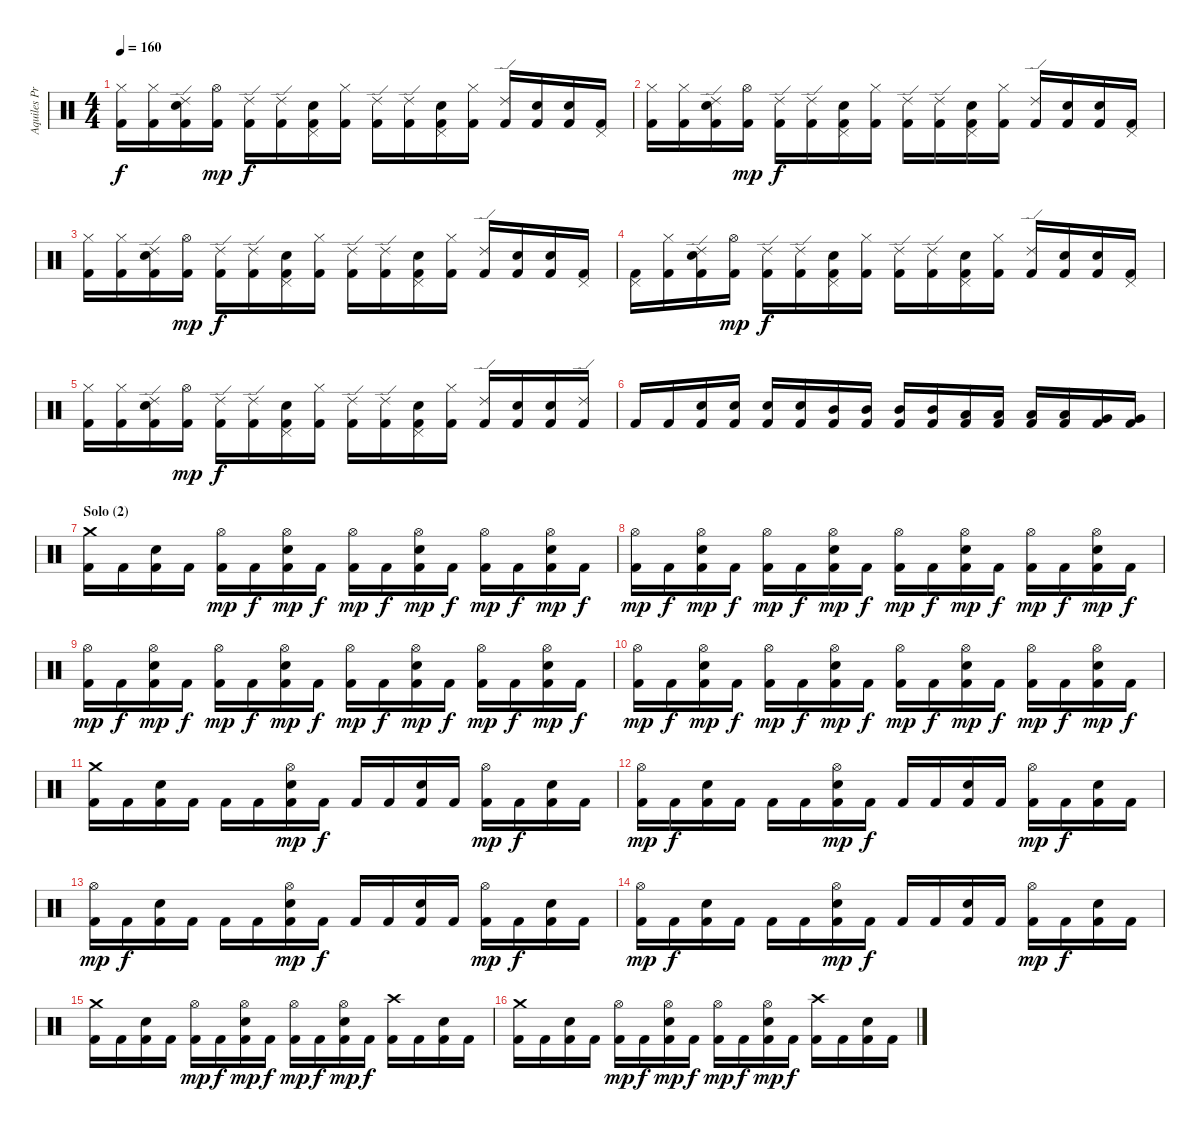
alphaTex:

\track ("Aquiles Priester" "Aquiles Pr") {instrument percussion}
\staff {score}
\articulation defaults
\ts (4 4)
\tempo 160
\clef neutral
\ks c
("Hi-Hat (closed)" "Kick (hit) 2").16{dy f} ("Hi-Hat (closed)" "Kick (hit) 2").16 ("Ride (edge) 2" "Snare (hit) 2" "Kick (hit) 2").16 ("Hi-Hat (open)" "Kick (hit) 2").16{dy mp} ("Ride (edge) 2" "Kick (hit) 2").16{dy f} ("Ride (edge) 2" "Kick (hit) 2").16 ("Pedal Hi-Hat (hit)" "Snare (hit) 2" "Kick (hit) 2").16 ("Hi-Hat (closed)" "Kick (hit) 2").16 ("Ride (edge) 2" "Kick (hit) 2").16 ("Ride (edge) 2" "Kick (hit) 2").16 ("Pedal Hi-Hat (hit)" "Snare (hit) 2" "Kick (hit) 2").16 ("Hi-Hat (closed)" "Kick (hit) 2").16 ("Ride (edge) 2" "Kick (hit) 2").16 ("Snare (hit) 2" "Kick (hit) 2").16 ("Snare (hit) 2" "Kick (hit) 2").16 ("Pedal Hi-Hat (hit)" "Kick (hit) 2").16 |
("Hi-Hat (closed)" "Kick (hit) 2").16 ("Hi-Hat (closed)" "Kick (hit) 2").16 ("Ride (edge) 2" "Snare (hit) 2" "Kick (hit) 2").16 ("Hi-Hat (open)" "Kick (hit) 2").16{dy mp} ("Ride (edge) 2" "Kick (hit) 2").16{dy f} ("Ride (edge) 2" "Kick (hit) 2").16 ("Pedal Hi-Hat (hit)" "Snare (hit) 2" "Kick (hit) 2").16 ("Hi-Hat (closed)" "Kick (hit) 2").16 ("Ride (edge) 2" "Kick (hit) 2").16 ("Ride (edge) 2" "Kick (hit) 2").16 ("Pedal Hi-Hat (hit)" "Snare (hit) 2" "Kick (hit) 2").16 ("Hi-Hat (closed)" "Kick (hit) 2").16 ("Ride (edge) 2" "Kick (hit) 2").16 ("Snare (hit) 2" "Kick (hit) 2").16 ("Snare (hit) 2" "Kick (hit) 2").16 ("Pedal Hi-Hat (hit)" "Kick (hit) 2").16 |
("Hi-Hat (closed)" "Kick (hit) 2").16 ("Hi-Hat (closed)" "Kick (hit) 2").16 ("Ride (edge) 2" "Snare (hit) 2" "Kick (hit) 2").16 ("Hi-Hat (open)" "Kick (hit) 2").16{dy mp} ("Ride (edge) 2" "Kick (hit) 2").16{dy f} ("Ride (edge) 2" "Kick (hit) 2").16 ("Pedal Hi-Hat (hit)" "Snare (hit) 2" "Kick (hit) 2").16 ("Hi-Hat (closed)" "Kick (hit) 2").16 ("Ride (edge) 2" "Kick (hit) 2").16 ("Ride (edge) 2" "Kick (hit) 2").16 ("Pedal Hi-Hat (hit)" "Snare (hit) 2" "Kick (hit) 2").16 ("Hi-Hat (closed)" "Kick (hit) 2").16 ("Ride (edge) 2" "Kick (hit) 2").16 ("Snare (hit) 2" "Kick (hit) 2").16 ("Snare (hit) 2" "Kick (hit) 2").16 ("Pedal Hi-Hat (hit)" "Kick (hit) 2").16 |
("Pedal Hi-Hat (hit)" "Kick (hit) 2").16 ("Hi-Hat (closed)" "Kick (hit) 2").16 ("Ride (edge) 2" "Snare (hit) 2" "Kick (hit) 2").16 ("Hi-Hat (open)" "Kick (hit) 2").16{dy mp} ("Ride (edge) 2" "Kick (hit) 2").16{dy f} ("Ride (edge) 2" "Kick (hit) 2").16 ("Pedal Hi-Hat (hit)" "Snare (hit) 2" "Kick (hit) 2").16 ("Hi-Hat (closed)" "Kick (hit) 2").16 ("Ride (edge) 2" "Kick (hit) 2").16 ("Ride (edge) 2" "Kick (hit) 2").16 ("Pedal Hi-Hat (hit)" "Snare (hit) 2" "Kick (hit) 2").16 ("Hi-Hat (closed)" "Kick (hit) 2").16 ("Ride (edge) 2" "Kick (hit) 2").16 ("Snare (hit) 2" "Kick (hit) 2").16 ("Snare (hit) 2" "Kick (hit) 2").16 ("Pedal Hi-Hat (hit)" "Kick (hit) 2").16 |
("Hi-Hat (closed)" "Kick (hit) 2").16 ("Hi-Hat (closed)" "Kick (hit) 2").16 ("Ride (edge) 2" "Snare (hit) 2" "Kick (hit) 2").16 ("Hi-Hat (open)" "Kick (hit) 2").16{dy mp} ("Ride (edge) 2" "Kick (hit) 2").16{dy f} ("Ride (edge) 2" "Kick (hit) 2").16 ("Pedal Hi-Hat (hit)" "Snare (hit) 2" "Kick (hit) 2").16 ("Hi-Hat (closed)" "Kick (hit) 2").16 ("Ride (edge) 2" "Kick (hit) 2").16 ("Ride (edge) 2" "Kick (hit) 2").16 ("Pedal Hi-Hat (hit)" "Snare (hit) 2" "Kick (hit) 2").16 ("Hi-Hat (closed)" "Kick (hit) 2").16 ("Ride (edge) 2" "Kick (hit) 2").16 ("Snare (hit) 2" "Kick (hit) 2").16 ("Snare (hit) 2" "Kick (hit) 2").16 ("Ride (edge) 2" "Kick (hit) 2").16 |
"Kick (hit) 2".16 "Kick (hit) 2".16 ("Snare (hit) 2" "Kick (hit) 2").16 ("Snare (hit) 2" "Kick (hit) 2").16 ("Snare (hit) 2" "Kick (hit) 2").16 ("Snare (hit) 2" "Kick (hit) 2").16 ("Mid Tom (hit)" "Kick (hit) 2").16 ("Mid Tom (hit)" "Kick (hit) 2").16 ("Mid Tom (hit)" "Kick (hit) 2").16 ("Mid Tom (hit)" "Kick (hit) 2").16 ("Low Tom (hit)" "Kick (hit) 2").16 ("Low Tom (hit)" "Kick (hit) 2").16 ("Low Tom (hit)" "Kick (hit) 2").16 ("Low Tom (hit)" "Kick (hit) 2").16 ("Very Low Tom (hit)" "Kick (hit) 2").16 ("Very Low Tom (hit)" "Kick (hit) 2").16 |
\section ("" "Solo (2)")
("Crash medium (hit)" "Kick (hit) 2").16 "Kick (hit) 2".16 ("Snare (hit) 2" "Kick (hit) 2").16 "Kick (hit) 2".16 ("Hi-Hat (open)" "Kick (hit) 2").16{dy mp} "Kick (hit) 2".16{dy f} ("Hi-Hat (open)" "Snare (hit) 2" "Kick (hit) 2").16{dy mp} "Kick (hit) 2".16{dy f} ("Hi-Hat (open)" "Kick (hit) 2").16{dy mp} "Kick (hit) 2".16{dy f} ("Hi-Hat (open)" "Snare (hit) 2" "Kick (hit) 2").16{dy mp} "Kick (hit) 2".16{dy f} ("Hi-Hat (open)" "Kick (hit) 2").16{dy mp} "Kick (hit) 2".16{dy f} ("Hi-Hat (open)" "Snare (hit) 2" "Kick (hit) 2").16{dy mp} "Kick (hit) 2".16{dy f} |
("Hi-Hat (open)" "Kick (hit) 2").16{dy mp} "Kick (hit) 2".16{dy f} ("Hi-Hat (open)" "Snare (hit) 2" "Kick (hit) 2").16{dy mp} "Kick (hit) 2".16{dy f} ("Hi-Hat (open)" "Kick (hit) 2").16{dy mp} "Kick (hit) 2".16{dy f} ("Hi-Hat (open)" "Snare (hit) 2" "Kick (hit) 2").16{dy mp} "Kick (hit) 2".16{dy f} ("Hi-Hat (open)" "Kick (hit) 2").16{dy mp} "Kick (hit) 2".16{dy f} ("Hi-Hat (open)" "Snare (hit) 2" "Kick (hit) 2").16{dy mp} "Kick (hit) 2".16{dy f} ("Hi-Hat (open)" "Kick (hit) 2").16{dy mp} "Kick (hit) 2".16{dy f} ("Hi-Hat (open)" "Snare (hit) 2" "Kick (hit) 2").16{dy mp} "Kick (hit) 2".16{dy f} |
("Hi-Hat (open)" "Kick (hit) 2").16{dy mp} "Kick (hit) 2".16{dy f} ("Hi-Hat (open)" "Snare (hit) 2" "Kick (hit) 2").16{dy mp} "Kick (hit) 2".16{dy f} ("Hi-Hat (open)" "Kick (hit) 2").16{dy mp} "Kick (hit) 2".16{dy f} ("Hi-Hat (open)" "Snare (hit) 2" "Kick (hit) 2").16{dy mp} "Kick (hit) 2".16{dy f} ("Hi-Hat (open)" "Kick (hit) 2").16{dy mp} "Kick (hit) 2".16{dy f} ("Hi-Hat (open)" "Snare (hit) 2" "Kick (hit) 2").16{dy mp} "Kick (hit) 2".16{dy f} ("Hi-Hat (open)" "Kick (hit) 2").16{dy mp} "Kick (hit) 2".16{dy f} ("Hi-Hat (open)" "Snare (hit) 2" "Kick (hit) 2").16{dy mp} "Kick (hit) 2".16{dy f} |
("Hi-Hat (open)" "Kick (hit) 2").16{dy mp} "Kick (hit) 2".16{dy f} ("Hi-Hat (open)" "Snare (hit) 2" "Kick (hit) 2").16{dy mp} "Kick (hit) 2".16{dy f} ("Hi-Hat (open)" "Kick (hit) 2").16{dy mp} "Kick (hit) 2".16{dy f} ("Hi-Hat (open)" "Snare (hit) 2" "Kick (hit) 2").16{dy mp} "Kick (hit) 2".16{dy f} ("Hi-Hat (open)" "Kick (hit) 2").16{dy mp} "Kick (hit) 2".16{dy f} ("Hi-Hat (open)" "Snare (hit) 2" "Kick (hit) 2").16{dy mp} "Kick (hit) 2".16{dy f} ("Hi-Hat (open)" "Kick (hit) 2").16{dy mp} "Kick (hit) 2".16{dy f} ("Hi-Hat (open)" "Snare (hit) 2" "Kick (hit) 2").16{dy mp} "Kick (hit) 2".16{dy f} |
("Crash medium (hit)" "Kick (hit) 2").16 "Kick (hit) 2".16 ("Snare (hit) 2" "Kick (hit) 2").16 "Kick (hit) 2".16 "Kick (hit) 2".16 "Kick (hit) 2".16 ("Hi-Hat (open)" "Snare (hit) 2" "Kick (hit) 2").16{dy mp} "Kick (hit) 2".16{dy f} "Kick (hit) 2".16 "Kick (hit) 2".16 ("Snare (hit) 2" "Kick (hit) 2").16 "Kick (hit) 2".16 ("Hi-Hat (open)" "Kick (hit) 2").16{dy mp} "Kick (hit) 2".16{dy f} ("Snare (hit) 2" "Kick (hit) 2").16 "Kick (hit) 2".16 |
("Hi-Hat (open)" "Kick (hit) 2").16{dy mp} "Kick (hit) 2".16{dy f} ("Snare (hit) 2" "Kick (hit) 2").16 "Kick (hit) 2".16 "Kick (hit) 2".16 "Kick (hit) 2".16 ("Hi-Hat (open)" "Snare (hit) 2" "Kick (hit) 2").16{dy mp} "Kick (hit) 2".16{dy f} "Kick (hit) 2".16 "Kick (hit) 2".16 ("Snare (hit) 2" "Kick (hit) 2").16 "Kick (hit) 2".16 ("Hi-Hat (open)" "Kick (hit) 2").16{dy mp} "Kick (hit) 2".16{dy f} ("Snare (hit) 2" "Kick (hit) 2").16 "Kick (hit) 2".16 |
("Hi-Hat (open)" "Kick (hit) 2").16{dy mp} "Kick (hit) 2".16{dy f} ("Snare (hit) 2" "Kick (hit) 2").16 "Kick (hit) 2".16 "Kick (hit) 2".16 "Kick (hit) 2".16 ("Hi-Hat (open)" "Snare (hit) 2" "Kick (hit) 2").16{dy mp} "Kick (hit) 2".16{dy f} "Kick (hit) 2".16 "Kick (hit) 2".16 ("Snare (hit) 2" "Kick (hit) 2").16 "Kick (hit) 2".16 ("Hi-Hat (open)" "Kick (hit) 2").16{dy mp} "Kick (hit) 2".16{dy f} ("Snare (hit) 2" "Kick (hit) 2").16 "Kick (hit) 2".16 |
("Hi-Hat (open)" "Kick (hit) 2").16{dy mp} "Kick (hit) 2".16{dy f} ("Snare (hit) 2" "Kick (hit) 2").16 "Kick (hit) 2".16 "Kick (hit) 2".16 "Kick (hit) 2".16 ("Hi-Hat (open)" "Snare (hit) 2" "Kick (hit) 2").16{dy mp} "Kick (hit) 2".16{dy f} "Kick (hit) 2".16 "Kick (hit) 2".16 ("Snare (hit) 2" "Kick (hit) 2").16 "Kick (hit) 2".16 ("Hi-Hat (open)" "Kick (hit) 2").16{dy mp} "Kick (hit) 2".16{dy f} ("Snare (hit) 2" "Kick (hit) 2").16 "Kick (hit) 2".16 |
("Crash medium (hit)" "Kick (hit) 2").16 "Kick (hit) 2".16 ("Snare (hit) 2" "Kick (hit) 2").16 "Kick (hit) 2".16 ("Hi-Hat (open)" "Kick (hit) 2").16{dy mp} "Kick (hit) 2".16{dy f} ("Hi-Hat (open)" "Snare (hit) 2" "Kick (hit) 2").16{dy mp} "Kick (hit) 2".16{dy f} ("Hi-Hat (open)" "Kick (hit) 2").16{dy mp} "Kick (hit) 2".16{dy f} ("Hi-Hat (open)" "Snare (hit) 2" "Kick (hit) 2").16{dy mp} "Kick (hit) 2".16{dy f} ("Crash high (hit)" "Kick (hit) 2").16 "Kick (hit) 2".16 ("Snare (hit) 2" "Kick (hit) 2").16 "Kick (hit) 2".16 |
("Crash medium (hit)" "Kick (hit) 2").16 "Kick (hit) 2".16 ("Snare (hit) 2" "Kick (hit) 2").16 "Kick (hit) 2".16 ("Hi-Hat (open)" "Kick (hit) 2").16{dy mp} "Kick (hit) 2".16{dy f} ("Hi-Hat (open)" "Snare (hit) 2" "Kick (hit) 2").16{dy mp} "Kick (hit) 2".16{dy f} ("Hi-Hat (open)" "Kick (hit) 2").16{dy mp} "Kick (hit) 2".16{dy f} ("Hi-Hat (open)" "Snare (hit) 2" "Kick (hit) 2").16{dy mp} "Kick (hit) 2".16{dy f} ("Crash high (hit)" "Kick (hit) 2").16 "Kick (hit) 2".16 ("Snare (hit) 2" "Kick (hit) 2").16 "Kick (hit) 2".16
